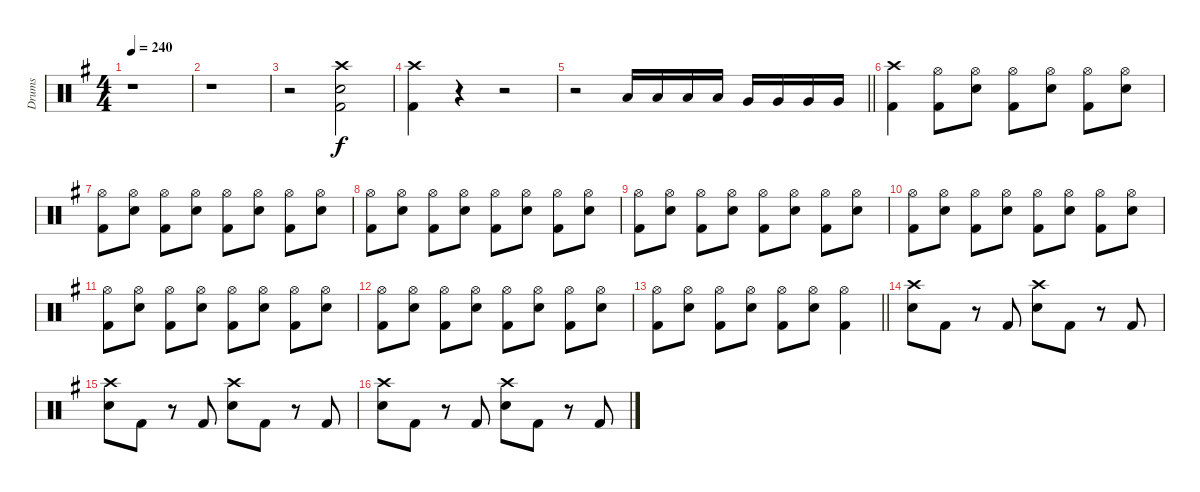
\track ("Drums" "Drums") {instrument percussion}
\staff {score}
\articulation defaults
\ts (4 4)
\tempo 240
\clef neutral
\ks eminor
r.1{dy f} |
r.1 |
r.2 ("Crash high (hit)" "Snare (hit) 2" "Kick (hit) 2").2 |
("Crash high (hit)" "Kick (hit) 2").4 r.4{volume 0} r.2 |
\barLineRight lightlight
r.2{volume 16} "Low Tom (hit)".16 "Low Tom (hit)".16 "Low Tom (hit)".16 "Low Tom (hit)".16 "Very Low Tom (hit)".16 "Very Low Tom (hit)".16 "Very Low Tom (hit)".16 "Very Low Tom (hit)".16 |
("Crash high (hit)" "Kick (hit) 2").4 ("Hi-Hat (open)" "Kick (hit) 2").8 ("Hi-Hat (open)" "Snare (hit) 2").8 ("Hi-Hat (open)" "Kick (hit) 2").8 ("Hi-Hat (open)" "Snare (hit) 2").8 ("Hi-Hat (open)" "Kick (hit) 2").8 ("Hi-Hat (open)" "Snare (hit) 2").8 |
("Hi-Hat (open)" "Kick (hit) 2").8 ("Hi-Hat (open)" "Snare (hit) 2").8 ("Hi-Hat (open)" "Kick (hit) 2").8 ("Hi-Hat (open)" "Snare (hit) 2").8 ("Hi-Hat (open)" "Kick (hit) 2").8 ("Hi-Hat (open)" "Snare (hit) 2").8 ("Hi-Hat (open)" "Kick (hit) 2").8 ("Hi-Hat (open)" "Snare (hit) 2").8 |
("Hi-Hat (open)" "Kick (hit) 2").8 ("Hi-Hat (open)" "Snare (hit) 2").8 ("Hi-Hat (open)" "Kick (hit) 2").8 ("Hi-Hat (open)" "Snare (hit) 2").8 ("Hi-Hat (open)" "Kick (hit) 2").8 ("Hi-Hat (open)" "Snare (hit) 2").8 ("Hi-Hat (open)" "Kick (hit) 2").8 ("Hi-Hat (open)" "Snare (hit) 2").8 |
("Hi-Hat (open)" "Kick (hit) 2").8 ("Hi-Hat (open)" "Snare (hit) 2").8 ("Hi-Hat (open)" "Kick (hit) 2").8 ("Hi-Hat (open)" "Snare (hit) 2").8 ("Hi-Hat (open)" "Kick (hit) 2").8 ("Hi-Hat (open)" "Snare (hit) 2").8 ("Hi-Hat (open)" "Kick (hit) 2").8 ("Hi-Hat (open)" "Snare (hit) 2").8 |
("Hi-Hat (open)" "Kick (hit) 2").8 ("Hi-Hat (open)" "Snare (hit) 2").8 ("Hi-Hat (open)" "Kick (hit) 2").8 ("Hi-Hat (open)" "Snare (hit) 2").8 ("Hi-Hat (open)" "Kick (hit) 2").8 ("Hi-Hat (open)" "Snare (hit) 2").8 ("Hi-Hat (open)" "Kick (hit) 2").8 ("Hi-Hat (open)" "Snare (hit) 2").8 |
("Hi-Hat (open)" "Kick (hit) 2").8 ("Hi-Hat (open)" "Snare (hit) 2").8 ("Hi-Hat (open)" "Kick (hit) 2").8 ("Hi-Hat (open)" "Snare (hit) 2").8 ("Hi-Hat (open)" "Kick (hit) 2").8 ("Hi-Hat (open)" "Snare (hit) 2").8 ("Hi-Hat (open)" "Kick (hit) 2").8 ("Hi-Hat (open)" "Snare (hit) 2").8 |
("Hi-Hat (open)" "Kick (hit) 2").8 ("Hi-Hat (open)" "Snare (hit) 2").8 ("Hi-Hat (open)" "Kick (hit) 2").8 ("Hi-Hat (open)" "Snare (hit) 2").8 ("Hi-Hat (open)" "Kick (hit) 2").8 ("Hi-Hat (open)" "Snare (hit) 2").8 ("Hi-Hat (open)" "Kick (hit) 2").8 ("Hi-Hat (open)" "Snare (hit) 2").8 |
\barLineRight lightlight
("Hi-Hat (open)" "Kick (hit) 2").8 ("Hi-Hat (open)" "Snare (hit) 2").8 ("Hi-Hat (open)" "Kick (hit) 2").8 ("Hi-Hat (open)" "Snare (hit) 2").8 ("Hi-Hat (open)" "Kick (hit) 2").8 ("Hi-Hat (open)" "Snare (hit) 2").8 ("Hi-Hat (open)" "Kick (hit) 2").4 |
("Crash high (hit)" "Snare (hit) 2").8 "Kick (hit) 2".8 r.8 "Kick (hit) 2".8 ("Crash high (hit)" "Snare (hit) 2").8 "Kick (hit) 2".8 r.8 "Kick (hit) 2".8 |
("Crash high (hit)" "Snare (hit) 2").8 "Kick (hit) 2".8 r.8 "Kick (hit) 2".8 ("Crash high (hit)" "Snare (hit) 2").8 "Kick (hit) 2".8 r.8 "Kick (hit) 2".8 |
("Crash high (hit)" "Snare (hit) 2").8 "Kick (hit) 2".8 r.8 "Kick (hit) 2".8 ("Crash high (hit)" "Snare (hit) 2").8 "Kick (hit) 2".8 r.8 "Kick (hit) 2".8
